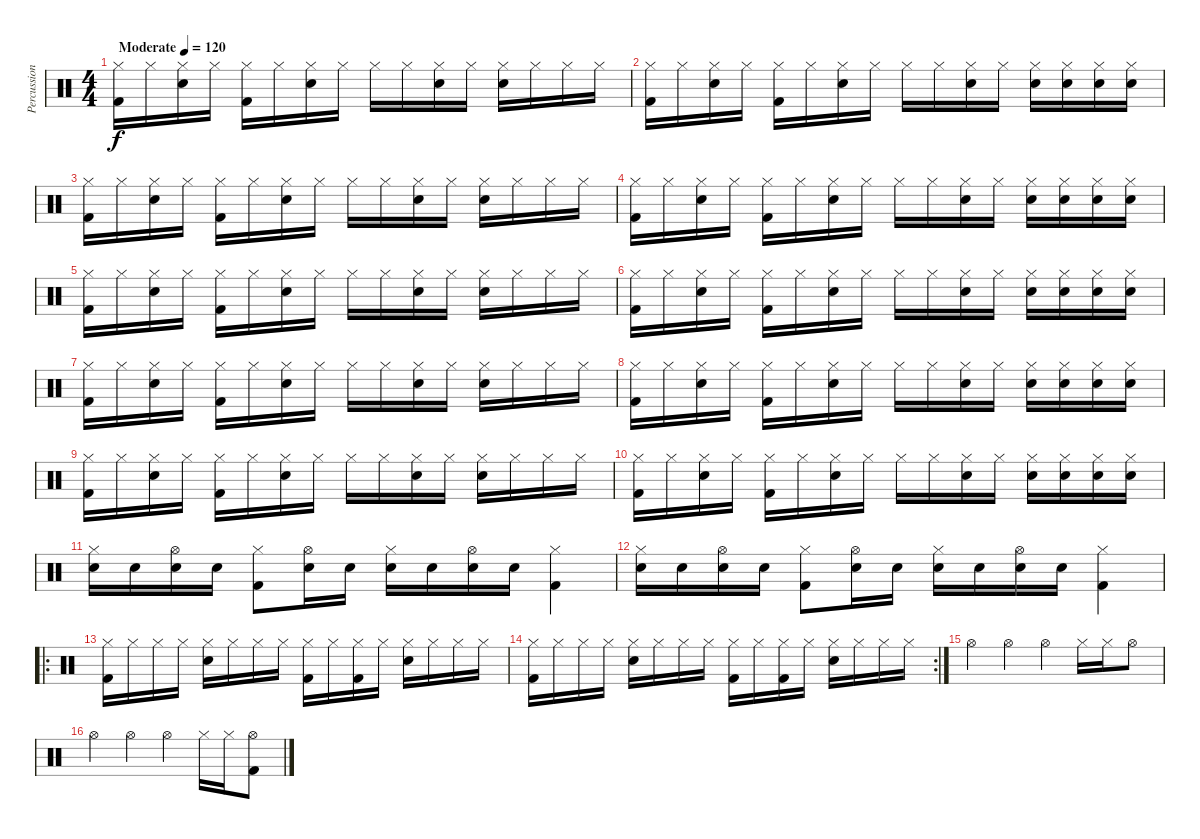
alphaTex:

\track ("Percussion" "Percussion") {instrument percussion}
\staff {score}
\articulation defaults
\ts (4 4)
\tempo (120 "Moderate")
\clef neutral
\ks c
("Hi-Hat (closed)" "Kick (hit) 2").16{dy f} "Hi-Hat (closed)".16 ("Hi-Hat (closed)" "Snare (hit) 2").16 "Hi-Hat (closed)".16 ("Hi-Hat (closed)" "Kick (hit) 2").16 "Hi-Hat (closed)".16 ("Hi-Hat (closed)" "Snare (hit) 2").16 "Hi-Hat (closed)".16 "Hi-Hat (closed)".16 "Hi-Hat (closed)".16 ("Hi-Hat (closed)" "Snare (hit) 2").16 "Hi-Hat (closed)".16 ("Hi-Hat (closed)" "Snare (hit) 2").16 "Hi-Hat (closed)".16 "Hi-Hat (closed)".16 "Hi-Hat (closed)".16 |
("Hi-Hat (closed)" "Kick (hit) 2").16 "Hi-Hat (closed)".16 ("Hi-Hat (closed)" "Snare (hit) 2").16 "Hi-Hat (closed)".16 ("Hi-Hat (closed)" "Kick (hit) 2").16 "Hi-Hat (closed)".16 ("Hi-Hat (closed)" "Snare (hit) 2").16 "Hi-Hat (closed)".16 "Hi-Hat (closed)".16 "Hi-Hat (closed)".16 ("Hi-Hat (closed)" "Snare (hit) 2").16 "Hi-Hat (closed)".16 ("Hi-Hat (closed)" "Snare (hit) 2").16 ("Hi-Hat (closed)" "Snare (hit) 2").16 ("Hi-Hat (closed)" "Snare (hit) 2").16 ("Hi-Hat (closed)" "Snare (hit) 2").16 |
("Hi-Hat (closed)" "Kick (hit) 2").16 "Hi-Hat (closed)".16 ("Hi-Hat (closed)" "Snare (hit) 2").16 "Hi-Hat (closed)".16 ("Hi-Hat (closed)" "Kick (hit) 2").16 "Hi-Hat (closed)".16 ("Hi-Hat (closed)" "Snare (hit) 2").16 "Hi-Hat (closed)".16 "Hi-Hat (closed)".16 "Hi-Hat (closed)".16 ("Hi-Hat (closed)" "Snare (hit) 2").16 "Hi-Hat (closed)".16 ("Hi-Hat (closed)" "Snare (hit) 2").16 "Hi-Hat (closed)".16 "Hi-Hat (closed)".16 "Hi-Hat (closed)".16 |
("Hi-Hat (closed)" "Kick (hit) 2").16 "Hi-Hat (closed)".16 ("Hi-Hat (closed)" "Snare (hit) 2").16 "Hi-Hat (closed)".16 ("Hi-Hat (closed)" "Kick (hit) 2").16 "Hi-Hat (closed)".16 ("Hi-Hat (closed)" "Snare (hit) 2").16 "Hi-Hat (closed)".16 "Hi-Hat (closed)".16 "Hi-Hat (closed)".16 ("Hi-Hat (closed)" "Snare (hit) 2").16 "Hi-Hat (closed)".16 ("Hi-Hat (closed)" "Snare (hit) 2").16 ("Hi-Hat (closed)" "Snare (hit) 2").16 ("Hi-Hat (closed)" "Snare (hit) 2").16 ("Hi-Hat (closed)" "Snare (hit) 2").16 |
("Hi-Hat (closed)" "Kick (hit) 2").16 "Hi-Hat (closed)".16 ("Hi-Hat (closed)" "Snare (hit) 2").16 "Hi-Hat (closed)".16 ("Hi-Hat (closed)" "Kick (hit) 2").16 "Hi-Hat (closed)".16 ("Hi-Hat (closed)" "Snare (hit) 2").16 "Hi-Hat (closed)".16 "Hi-Hat (closed)".16 "Hi-Hat (closed)".16 ("Hi-Hat (closed)" "Snare (hit) 2").16 "Hi-Hat (closed)".16 ("Hi-Hat (closed)" "Snare (hit) 2").16 "Hi-Hat (closed)".16 "Hi-Hat (closed)".16 "Hi-Hat (closed)".16 |
("Hi-Hat (closed)" "Kick (hit) 2").16 "Hi-Hat (closed)".16 ("Hi-Hat (closed)" "Snare (hit) 2").16 "Hi-Hat (closed)".16 ("Hi-Hat (closed)" "Kick (hit) 2").16 "Hi-Hat (closed)".16 ("Hi-Hat (closed)" "Snare (hit) 2").16 "Hi-Hat (closed)".16 "Hi-Hat (closed)".16 "Hi-Hat (closed)".16 ("Hi-Hat (closed)" "Snare (hit) 2").16 "Hi-Hat (closed)".16 ("Hi-Hat (closed)" "Snare (hit) 2").16 ("Hi-Hat (closed)" "Snare (hit) 2").16 ("Hi-Hat (closed)" "Snare (hit) 2").16 ("Hi-Hat (closed)" "Snare (hit) 2").16 |
("Hi-Hat (closed)" "Kick (hit) 2").16 "Hi-Hat (closed)".16 ("Hi-Hat (closed)" "Snare (hit) 2").16 "Hi-Hat (closed)".16 ("Hi-Hat (closed)" "Kick (hit) 2").16 "Hi-Hat (closed)".16 ("Hi-Hat (closed)" "Snare (hit) 2").16 "Hi-Hat (closed)".16 "Hi-Hat (closed)".16 "Hi-Hat (closed)".16 ("Hi-Hat (closed)" "Snare (hit) 2").16 "Hi-Hat (closed)".16 ("Hi-Hat (closed)" "Snare (hit) 2").16 "Hi-Hat (closed)".16 "Hi-Hat (closed)".16 "Hi-Hat (closed)".16 |
("Hi-Hat (closed)" "Kick (hit) 2").16 "Hi-Hat (closed)".16 ("Hi-Hat (closed)" "Snare (hit) 2").16 "Hi-Hat (closed)".16 ("Hi-Hat (closed)" "Kick (hit) 2").16 "Hi-Hat (closed)".16 ("Hi-Hat (closed)" "Snare (hit) 2").16 "Hi-Hat (closed)".16 "Hi-Hat (closed)".16 "Hi-Hat (closed)".16 ("Hi-Hat (closed)" "Snare (hit) 2").16 "Hi-Hat (closed)".16 ("Hi-Hat (closed)" "Snare (hit) 2").16 ("Hi-Hat (closed)" "Snare (hit) 2").16 ("Hi-Hat (closed)" "Snare (hit) 2").16 ("Hi-Hat (closed)" "Snare (hit) 2").16 |
("Hi-Hat (closed)" "Kick (hit) 2").16 "Hi-Hat (closed)".16 ("Hi-Hat (closed)" "Snare (hit) 2").16 "Hi-Hat (closed)".16 ("Hi-Hat (closed)" "Kick (hit) 2").16 "Hi-Hat (closed)".16 ("Hi-Hat (closed)" "Snare (hit) 2").16 "Hi-Hat (closed)".16 "Hi-Hat (closed)".16 "Hi-Hat (closed)".16 ("Hi-Hat (closed)" "Snare (hit) 2").16 "Hi-Hat (closed)".16 ("Hi-Hat (closed)" "Snare (hit) 2").16 "Hi-Hat (closed)".16 "Hi-Hat (closed)".16 "Hi-Hat (closed)".16 |
("Hi-Hat (closed)" "Kick (hit) 2").16 "Hi-Hat (closed)".16 ("Hi-Hat (closed)" "Snare (hit) 2").16 "Hi-Hat (closed)".16 ("Hi-Hat (closed)" "Kick (hit) 2").16 "Hi-Hat (closed)".16 ("Hi-Hat (closed)" "Snare (hit) 2").16 "Hi-Hat (closed)".16 "Hi-Hat (closed)".16 "Hi-Hat (closed)".16 ("Hi-Hat (closed)" "Snare (hit) 2").16 "Hi-Hat (closed)".16 ("Hi-Hat (closed)" "Snare (hit) 2").16 ("Hi-Hat (closed)" "Snare (hit) 2").16 ("Hi-Hat (closed)" "Snare (hit) 2").16 ("Hi-Hat (closed)" "Snare (hit) 2").16 |
("Hi-Hat (closed)" "Snare (hit) 2").16 "Snare (hit) 2".16 ("Hi-Hat (open)" "Snare (hit) 2").16 "Snare (hit) 2".16 ("Hi-Hat (closed)" "Kick (hit) 2").8 ("Hi-Hat (open)" "Snare (hit) 2").16 "Snare (hit) 2".16 ("Hi-Hat (closed)" "Snare (hit) 2").16 "Snare (hit) 2".16 ("Hi-Hat (open)" "Snare (hit) 2").16 "Snare (hit) 2".16 ("Hi-Hat (closed)" "Kick (hit) 2").4 |
("Hi-Hat (closed)" "Snare (hit) 2").16 "Snare (hit) 2".16 ("Hi-Hat (open)" "Snare (hit) 2").16 "Snare (hit) 2".16 ("Hi-Hat (closed)" "Kick (hit) 2").8 ("Hi-Hat (open)" "Snare (hit) 2").16 "Snare (hit) 2".16 ("Hi-Hat (closed)" "Snare (hit) 2").16 "Snare (hit) 2".16 ("Hi-Hat (open)" "Snare (hit) 2").16 "Snare (hit) 2".16 ("Hi-Hat (closed)" "Kick (hit) 2").4 |
\ro
("Hi-Hat (closed)" "Kick (hit) 2").16 "Hi-Hat (closed)".16 "Hi-Hat (closed)".16 "Hi-Hat (closed)".16 ("Hi-Hat (closed)" "Snare (hit) 2").16 "Hi-Hat (closed)".16 "Hi-Hat (closed)".16 "Hi-Hat (closed)".16 ("Hi-Hat (closed)" "Kick (hit) 2").16 "Hi-Hat (closed)".16 ("Hi-Hat (closed)" "Kick (hit) 2").16 "Hi-Hat (closed)".16 ("Hi-Hat (closed)" "Snare (hit) 2").16 "Hi-Hat (closed)".16 "Hi-Hat (closed)".16 "Hi-Hat (closed)".16 |
\rc 2
("Hi-Hat (closed)" "Kick (hit) 2").16 "Hi-Hat (closed)".16 "Hi-Hat (closed)".16 "Hi-Hat (closed)".16 ("Hi-Hat (closed)" "Snare (hit) 2").16 "Hi-Hat (closed)".16 "Hi-Hat (closed)".16 "Hi-Hat (closed)".16 ("Hi-Hat (closed)" "Kick (hit) 2").16 "Hi-Hat (closed)".16 ("Hi-Hat (closed)" "Kick (hit) 2").16 "Hi-Hat (closed)".16 ("Hi-Hat (closed)" "Snare (hit) 2").16 "Hi-Hat (closed)".16 "Hi-Hat (closed)".16 "Hi-Hat (closed)".16 |
"Hi-Hat (open)".4 "Hi-Hat (open)".4 "Hi-Hat (open)".4 "Hi-Hat (closed)".16 "Hi-Hat (closed)".16 "Hi-Hat (open)".8 |
"Hi-Hat (open)".4 "Hi-Hat (open)".4 "Hi-Hat (open)".4 "Hi-Hat (closed)".16 "Hi-Hat (closed)".16 ("Hi-Hat (open)" "Kick (hit) 2").8
